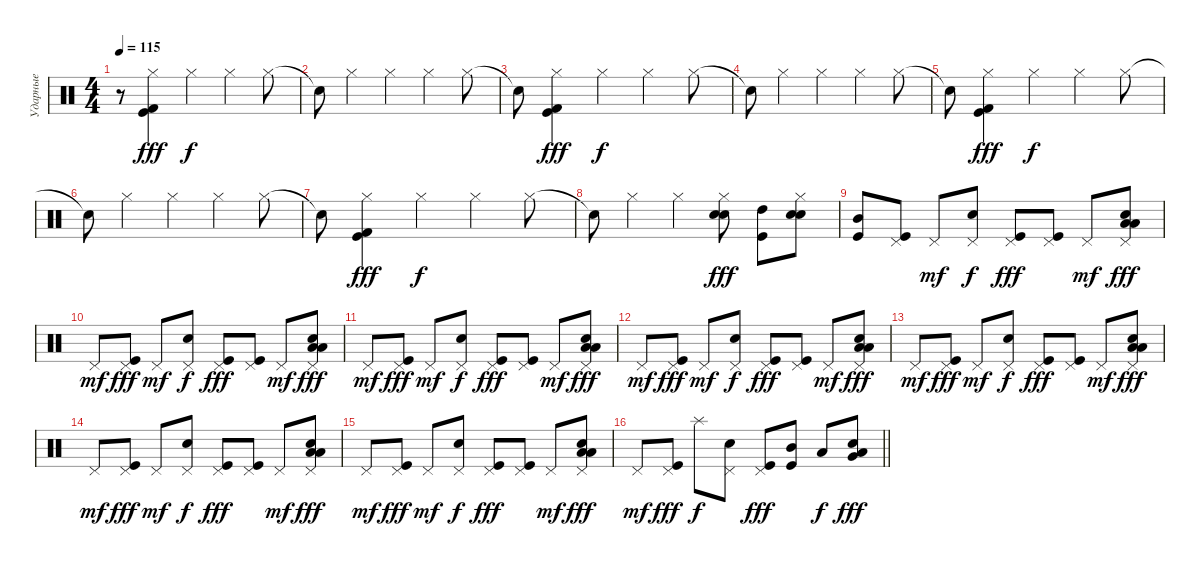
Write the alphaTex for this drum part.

\track ("Ударные" "Ударные") {instrument percussion}
\staff {score}
\articulation defaults
\ts (4 4)
\tempo 115
\clef neutral
\ks c
r.8{dy fff} ("Hi-Hat (closed)" "Kick (hit)" "Kick (hit) 2").4 "Hi-Hat (closed)".4{dy f} "Hi-Hat (closed)".4 "Hi-Hat (closed)".8 |
"Snare (hit)"{t}.8 "Hi-Hat (closed)".4 "Hi-Hat (closed)".4 "Hi-Hat (closed)".4 "Hi-Hat (closed)".8 |
"Snare (hit)"{t}.8 ("Hi-Hat (closed)" "Kick (hit)" "Kick (hit) 2").4{dy fff} "Hi-Hat (closed)".4{dy f} "Hi-Hat (closed)".4 "Hi-Hat (closed)".8 |
"Snare (hit)"{t}.8 "Hi-Hat (closed)".4 "Hi-Hat (closed)".4 "Hi-Hat (closed)".4 "Hi-Hat (closed)".8 |
"Snare (hit)"{t}.8 ("Hi-Hat (closed)" "Kick (hit)" "Kick (hit) 2").4{dy fff} "Hi-Hat (closed)".4{dy f} "Hi-Hat (closed)".4 "Hi-Hat (closed)".8 |
"Snare (hit)"{t}.8 "Hi-Hat (closed)".4 "Hi-Hat (closed)".4 "Hi-Hat (closed)".4 "Hi-Hat (closed)".8 |
"Snare (hit)"{t}.8 ("Hi-Hat (closed)" "Kick (hit)" "Kick (hit) 2").4{dy fff} "Hi-Hat (closed)".4{dy f} "Hi-Hat (closed)".4 "Hi-Hat (closed)".8 |
"Snare (hit)"{t}.8 "Hi-Hat (closed)".4 "Hi-Hat (closed)".4 ("Electric Snare (hit)" "Hi-Hat (closed)" "Electric Snare (hit)").8{dy fff} ("High Tom (hit)" "Kick (hit)").8 ("Electric Snare (hit)" "Hi-Hat (closed)" "Electric Snare (hit)").8 |
("Mid Tom (hit)" "Kick (hit)").8 ("Pedal Hi-Hat (hit)" "Kick (hit)").8 "Pedal Hi-Hat (hit)".8{dy mf} ("Pedal Hi-Hat (hit)" "Electric Snare (hit)").8{dy f} ("Pedal Hi-Hat (hit)" "Kick (hit)").8{dy fff} ("Pedal Hi-Hat (hit)" "Kick (hit)").8 "Pedal Hi-Hat (hit)".8{dy mf} ("Pedal Hi-Hat (hit)" "Low Tom (hit)" "Low Tom (hit)" "Electric Snare (hit)").8{dy fff} |
"Pedal Hi-Hat (hit)".8{dy mf} ("Pedal Hi-Hat (hit)" "Kick (hit)").8{dy fff} "Pedal Hi-Hat (hit)".8{dy mf} ("Pedal Hi-Hat (hit)" "Electric Snare (hit)").8{dy f} ("Pedal Hi-Hat (hit)" "Kick (hit)").8{dy fff} ("Pedal Hi-Hat (hit)" "Kick (hit)").8 "Pedal Hi-Hat (hit)".8{dy mf} ("Pedal Hi-Hat (hit)" "Low Tom (hit)" "Low Tom (hit)" "Electric Snare (hit)").8{dy fff} |
"Pedal Hi-Hat (hit)".8{dy mf} ("Pedal Hi-Hat (hit)" "Kick (hit)").8{dy fff} "Pedal Hi-Hat (hit)".8{dy mf} ("Pedal Hi-Hat (hit)" "Electric Snare (hit)").8{dy f} ("Pedal Hi-Hat (hit)" "Kick (hit)").8{dy fff} ("Pedal Hi-Hat (hit)" "Kick (hit)").8 "Pedal Hi-Hat (hit)".8{dy mf} ("Pedal Hi-Hat (hit)" "Low Tom (hit)" "Low Tom (hit)" "Electric Snare (hit)").8{dy fff} |
"Pedal Hi-Hat (hit)".8{dy mf} ("Pedal Hi-Hat (hit)" "Kick (hit)").8{dy fff} "Pedal Hi-Hat (hit)".8{dy mf} ("Pedal Hi-Hat (hit)" "Electric Snare (hit)").8{dy f} ("Pedal Hi-Hat (hit)" "Kick (hit)").8{dy fff} ("Pedal Hi-Hat (hit)" "Kick (hit)").8 "Pedal Hi-Hat (hit)".8{dy mf} ("Pedal Hi-Hat (hit)" "Low Tom (hit)" "Low Tom (hit)" "Electric Snare (hit)").8{dy fff} |
"Pedal Hi-Hat (hit)".8{dy mf} ("Pedal Hi-Hat (hit)" "Kick (hit)").8{dy fff} "Pedal Hi-Hat (hit)".8{dy mf} ("Pedal Hi-Hat (hit)" "Electric Snare (hit)").8{dy f} ("Pedal Hi-Hat (hit)" "Kick (hit)").8{dy fff} ("Pedal Hi-Hat (hit)" "Kick (hit)").8 "Pedal Hi-Hat (hit)".8{dy mf} ("Pedal Hi-Hat (hit)" "Low Tom (hit)" "Low Tom (hit)" "Electric Snare (hit)").8{dy fff} |
"Pedal Hi-Hat (hit)".8{dy mf} ("Pedal Hi-Hat (hit)" "Kick (hit)").8{dy fff} "Pedal Hi-Hat (hit)".8{dy mf} ("Pedal Hi-Hat (hit)" "Electric Snare (hit)").8{dy f} ("Pedal Hi-Hat (hit)" "Kick (hit)").8{dy fff} ("Pedal Hi-Hat (hit)" "Kick (hit)").8 "Pedal Hi-Hat (hit)".8{dy mf} ("Pedal Hi-Hat (hit)" "Low Tom (hit)" "Low Tom (hit)" "Electric Snare (hit)").8{dy fff} |
"Pedal Hi-Hat (hit)".8{dy mf} ("Pedal Hi-Hat (hit)" "Kick (hit)").8{dy fff} "Pedal Hi-Hat (hit)".8{dy mf} ("Pedal Hi-Hat (hit)" "Electric Snare (hit)").8{dy f} ("Pedal Hi-Hat (hit)" "Kick (hit)").8{dy fff} ("Pedal Hi-Hat (hit)" "Kick (hit)").8 "Pedal Hi-Hat (hit)".8{dy mf} ("Pedal Hi-Hat (hit)" "Low Tom (hit)" "Low Tom (hit)" "Electric Snare (hit)").8{dy fff} |
\barLineRight lightlight "Pedal Hi-Hat (hit)".8{dy mf}
("Pedal Hi-Hat (hit)" "Kick (hit)").8{dy fff} "Splash (hit)".8{dy f} ("Pedal Hi-Hat (hit)" "Electric Snare (hit)").8 ("Pedal Hi-Hat (hit)" "Kick (hit)").8{dy fff} ("Kick (hit)" "Mid Tom (hit)").8 "Low Tom (hit)".8{dy f} ("Very Low Tom (hit)" "Low Tom (hit)" "Electric Snare (hit)").8{dy fff}
